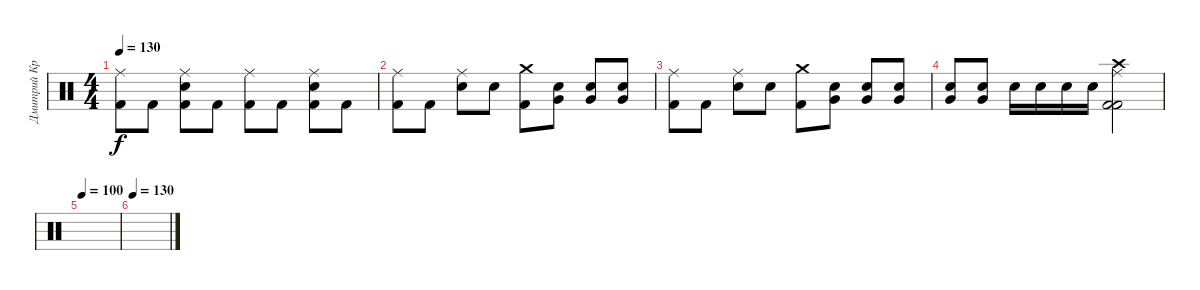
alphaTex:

\track ("Дмитрий Кривенков" "Дмитрий Кр") {instrument percussion}
\staff {score}
\articulation defaults
\ts (4 4)
\tempo 130
\clef neutral
\ks c
("Ride (middle)" "Kick (hit) 2").8{dy f} "Kick (hit) 2".8 ("Kick (hit) 2" "Electric Snare (hit)" "Ride (middle)").8 "Kick (hit) 2".8 ("Ride (middle)" "Kick (hit) 2").8 "Kick (hit) 2".8 ("Kick (hit) 2" "Electric Snare (hit)" "Ride (middle)").8 "Kick (hit) 2".8 |
("Kick (hit) 2" "Ride (middle)").8 "Kick (hit) 2".8 ("Ride (middle)" "Electric Snare (hit)").8 "Electric Snare (hit)".8 ("Kick (hit) 2" "Crash medium (hit)").8 ("Electric Snare (hit)" "Very Low Tom (hit)").8 ("Very Low Tom (hit)" "Electric Snare (hit)").8 ("Electric Snare (hit)" "Very Low Tom (hit)").8 |
("Kick (hit) 2" "Ride (middle)").8 "Kick (hit) 2".8 ("Ride (middle)" "Electric Snare (hit)").8 "Electric Snare (hit)".8 ("Kick (hit) 2" "Crash medium (hit)").8 ("Electric Snare (hit)" "Very Low Tom (hit)").8 ("Very Low Tom (hit)" "Electric Snare (hit)").8 ("Electric Snare (hit)" "Very Low Tom (hit)").8 |
("Electric Snare (hit)" "Very Low Tom (hit)").8 ("Very Low Tom (hit)" "Electric Snare (hit)").8 "Electric Snare (hit)".16 "Electric Snare (hit)".16 "Electric Snare (hit)".16 "Electric Snare (hit)".16 ("Kick (hit) 2" "Ride (middle)" "Kick (hit) 2" "Crash high (hit)").2 |
\tempo 100
|
\tempo 130
